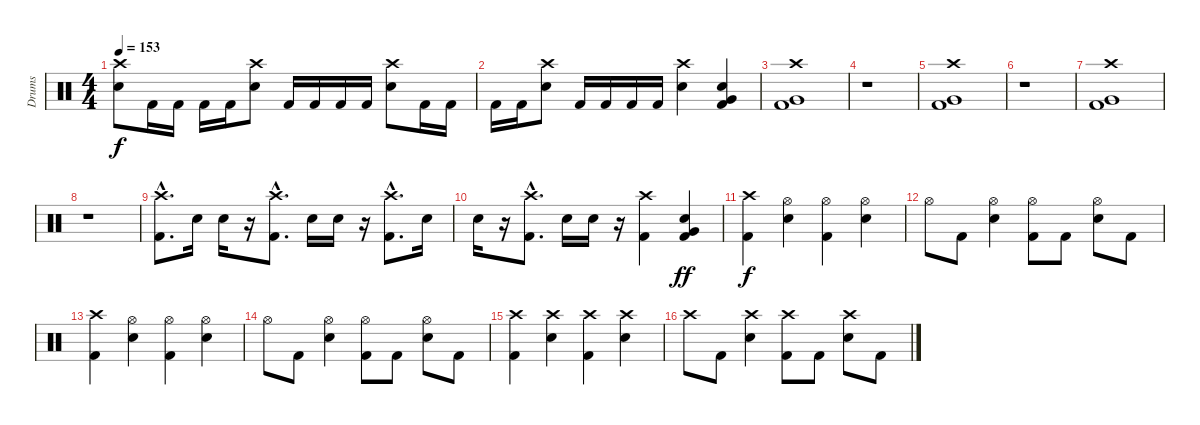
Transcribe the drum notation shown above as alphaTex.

\track ("Drums" "Drums") {instrument percussion}
\staff {score}
\articulation defaults
\ts (4 4)
\tempo 153
\clef neutral
\ks c
("Crash high (hit)" "Electric Snare (hit)").8{dy f} "Kick (hit) 2".16 "Kick (hit) 2".16 "Kick (hit) 2".16 "Kick (hit) 2".16 ("Crash high (hit)" "Electric Snare (hit)").8 "Kick (hit) 2".16 "Kick (hit) 2".16 "Kick (hit) 2".16 "Kick (hit) 2".16 ("Crash high (hit)" "Electric Snare (hit)").8 "Kick (hit) 2".16 "Kick (hit) 2".16 |
"Kick (hit) 2".16 "Kick (hit) 2".16 ("Crash high (hit)" "Electric Snare (hit)").8 "Kick (hit) 2".16 "Kick (hit) 2".16 "Kick (hit) 2".16 "Kick (hit) 2".16 ("Crash high (hit)" "Electric Snare (hit)").4 ("Very Low Tom (hit)" "Electric Snare (hit)" "Kick (hit) 2").4 |
("Crash high (hit)" "Very Low Tom (hit)" "Kick (hit) 2").1 |
r.1 |
("Crash high (hit)" "Very Low Tom (hit)" "Kick (hit) 2").1 |
r.1 |
("Crash high (hit)" "Very Low Tom (hit)" "Kick (hit) 2").1 |
r.1 |
("Crash high (hit)"{hac} "Kick (hit) 2"{hac}).8{d} "Electric Snare (hit)".16 "Electric Snare (hit)".16 r.16 ("Crash high (hit)"{hac} "Kick (hit) 2"{hac}).8{d} "Electric Snare (hit)".16 "Electric Snare (hit)".16 r.16 ("Crash high (hit)"{hac} "Kick (hit) 2"{hac}).8{d} "Electric Snare (hit)".16 |
"Electric Snare (hit)".16 r.16 ("Crash high (hit)"{hac} "Kick (hit) 2"{hac}).8{d} "Electric Snare (hit)".16 "Electric Snare (hit)".16 r.16 ("Crash high (hit)" "Kick (hit) 2").4 ("Very Low Tom (hit)" "Electric Snare (hit)" "Kick (hit) 2").4{dy ff} |
("Crash high (hit)" "Kick (hit) 2").4{dy f} ("Hi-Hat (open)" "Electric Snare (hit)").4 ("Hi-Hat (open)" "Kick (hit) 2").4 ("Hi-Hat (open)" "Electric Snare (hit)").4 |
"Hi-Hat (open)".8 "Kick (hit) 2".8 ("Hi-Hat (open)" "Electric Snare (hit)").4 ("Hi-Hat (open)" "Kick (hit) 2").8 "Kick (hit) 2".8 ("Hi-Hat (open)" "Electric Snare (hit)").8 "Kick (hit) 2".8 |
("Crash high (hit)" "Kick (hit) 2").4 ("Hi-Hat (open)" "Electric Snare (hit)").4 ("Hi-Hat (open)" "Kick (hit) 2").4 ("Hi-Hat (open)" "Electric Snare (hit)").4 |
"Hi-Hat (open)".8 "Kick (hit) 2".8 ("Hi-Hat (open)" "Electric Snare (hit)").4 ("Hi-Hat (open)" "Kick (hit) 2").8 "Kick (hit) 2".8 ("Hi-Hat (open)" "Electric Snare (hit)").8 "Kick (hit) 2".8 |
("Crash high (hit)" "Kick (hit) 2").4 ("Crash high (hit)" "Electric Snare (hit)").4 ("Crash high (hit)" "Kick (hit) 2").4 ("Crash high (hit)" "Electric Snare (hit)").4 |
"Crash high (hit)".8 "Kick (hit) 2".8 ("Crash high (hit)" "Electric Snare (hit)").4 ("Crash high (hit)" "Kick (hit) 2").8 "Kick (hit) 2".8 ("Crash high (hit)" "Electric Snare (hit)").8 "Kick (hit) 2".8
